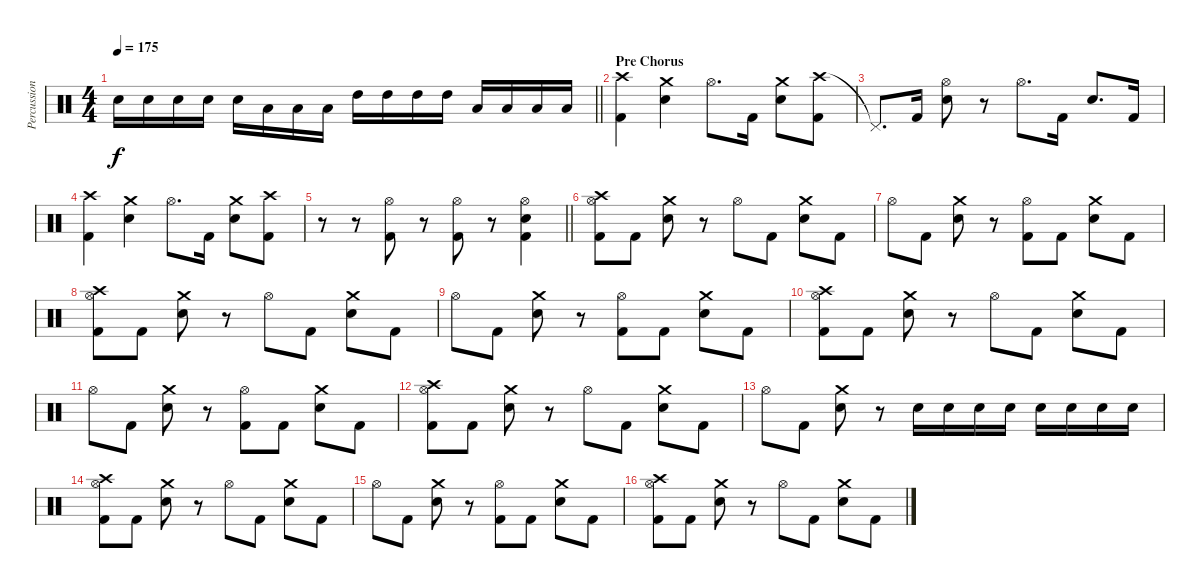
\track ("Percussion" "Percussion") {instrument percussion}
\staff {score}
\articulation defaults
\ts (4 4)
\tempo 175
\clef neutral
\barLineRight lightlight
\ks c "Snare (hit) 2".16{dy f} "Snare (hit) 2".16 "Snare (hit) 2".16 "Snare (hit) 2".16 "Snare (hit) 2".16 "Low Tom (hit)".16 "Low Tom (hit)".16 "Low Tom (hit)".16 "High Tom (hit)".16 "High Tom (hit)".16 "High Tom (hit)".16 "High Tom (hit)".16 "Low Floor Tom (hit)".16 "Low Floor Tom (hit)".16 "Low Floor Tom (hit)".16 "Low Floor Tom (hit)".16
|
\section ("" "Pre Chorus")
("Crash high (hit)" "Kick (hit) 2").4 ("Crash medium (hit)" "Electric Snare (hit)").4 "Hi-Hat (open)".8{d} "Kick (hit) 2".16 ("Crash medium (hit)" "Electric Snare (hit)").8 ("Crash high (hit)" "Kick (hit) 2").8 |
"Pedal Hi-Hat (hit)"{t}.8{d} "Kick (hit) 2".16 ("Hi-Hat (open)" "Electric Snare (hit)").8 r.8 "Hi-Hat (open)".8{d} "Kick (hit) 2".16 "Electric Snare (hit)".8{d} "Kick (hit) 2".16 |
("Crash high (hit)" "Kick (hit) 2").4 ("Crash medium (hit)" "Electric Snare (hit)").4 "Hi-Hat (open)".8{d} "Kick (hit) 2".16 ("Crash medium (hit)" "Electric Snare (hit)").8 ("Crash high (hit)" "Kick (hit) 2").8 |
\barLineRight lightlight
r.8 r.8 ("Hi-Hat (open)" "Kick (hit) 2").8 r.8 ("Hi-Hat (open)" "Kick (hit) 2").8 r.8 ("Hi-Hat (open)" "Electric Snare (hit)" "Kick (hit) 2").4 |
("Hi-Hat (open)" "Crash high (hit)" "Kick (hit) 2").8 "Kick (hit) 2".8 ("Crash medium (hit)" "Electric Snare (hit)").8 r.8 "Hi-Hat (open)".8 "Kick (hit) 2".8 ("Crash medium (hit)" "Electric Snare (hit)").8 "Kick (hit) 2".8 |
"Hi-Hat (open)".8 "Kick (hit) 2".8 ("Crash medium (hit)" "Electric Snare (hit)").8 r.8 ("Hi-Hat (open)" "Kick (hit) 2").8 "Kick (hit) 2".8 ("Crash medium (hit)" "Electric Snare (hit)").8 "Kick (hit) 2".8 |
("Hi-Hat (open)" "Crash high (hit)" "Kick (hit) 2").8 "Kick (hit) 2".8 ("Crash medium (hit)" "Electric Snare (hit)").8 r.8 "Hi-Hat (open)".8 "Kick (hit) 2".8 ("Crash medium (hit)" "Electric Snare (hit)").8 "Kick (hit) 2".8 |
"Hi-Hat (open)".8 "Kick (hit) 2".8 ("Crash medium (hit)" "Electric Snare (hit)").8 r.8 ("Hi-Hat (open)" "Kick (hit) 2").8 "Kick (hit) 2".8 ("Crash medium (hit)" "Electric Snare (hit)").8 "Kick (hit) 2".8 |
("Hi-Hat (open)" "Crash high (hit)" "Kick (hit) 2").8 "Kick (hit) 2".8 ("Crash medium (hit)" "Electric Snare (hit)").8 r.8 "Hi-Hat (open)".8 "Kick (hit) 2".8 ("Crash medium (hit)" "Electric Snare (hit)").8 "Kick (hit) 2".8 |
"Hi-Hat (open)".8 "Kick (hit) 2".8 ("Crash medium (hit)" "Electric Snare (hit)").8 r.8 ("Hi-Hat (open)" "Kick (hit) 2").8 "Kick (hit) 2".8 ("Crash medium (hit)" "Electric Snare (hit)").8 "Kick (hit) 2".8 |
("Hi-Hat (open)" "Crash high (hit)" "Kick (hit) 2").8 "Kick (hit) 2".8 ("Crash medium (hit)" "Electric Snare (hit)").8 r.8 "Hi-Hat (open)".8 "Kick (hit) 2".8 ("Crash medium (hit)" "Electric Snare (hit)").8 "Kick (hit) 2".8 |
"Hi-Hat (open)".8 "Kick (hit) 2".8 ("Crash medium (hit)" "Electric Snare (hit)").8 r.8 "Electric Snare (hit)".16 "Electric Snare (hit)".16 "Electric Snare (hit)".16 "Electric Snare (hit)".16 "Electric Snare (hit)".16 "Electric Snare (hit)".16 "Electric Snare (hit)".16 "Electric Snare (hit)".16 |
("Hi-Hat (open)" "Crash high (hit)" "Kick (hit) 2").8 "Kick (hit) 2".8 ("Crash medium (hit)" "Electric Snare (hit)").8 r.8 "Hi-Hat (open)".8 "Kick (hit) 2".8 ("Crash medium (hit)" "Electric Snare (hit)").8 "Kick (hit) 2".8 |
"Hi-Hat (open)".8 "Kick (hit) 2".8 ("Crash medium (hit)" "Electric Snare (hit)").8 r.8 ("Hi-Hat (open)" "Kick (hit) 2").8 "Kick (hit) 2".8 ("Crash medium (hit)" "Electric Snare (hit)").8 "Kick (hit) 2".8 |
("Hi-Hat (open)" "Crash high (hit)" "Kick (hit) 2").8 "Kick (hit) 2".8 ("Crash medium (hit)" "Electric Snare (hit)").8 r.8 "Hi-Hat (open)".8 "Kick (hit) 2".8 ("Crash medium (hit)" "Electric Snare (hit)").8 "Kick (hit) 2".8
